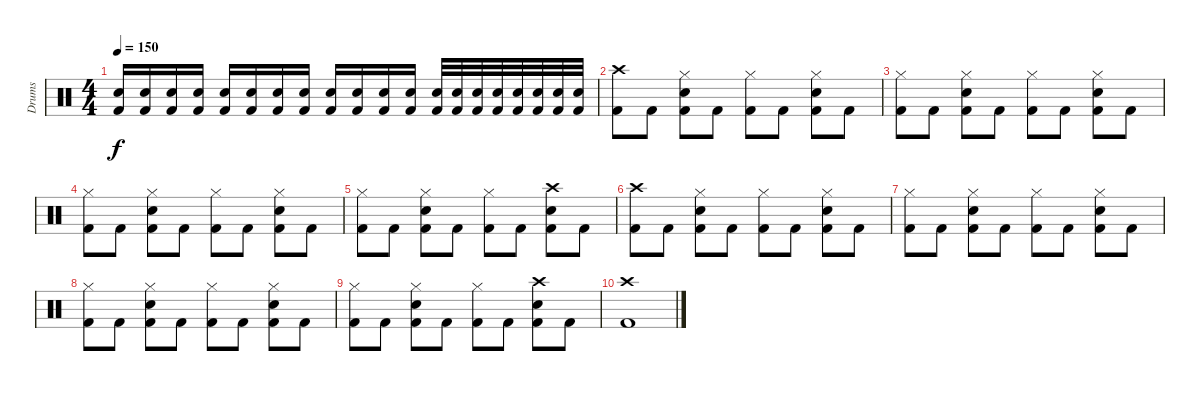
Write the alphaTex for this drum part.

\track ("Drums" "Drums") {instrument percussion}
\staff {score}
\articulation defaults
\ts (4 4)
\tempo 150
\clef neutral
\ks c
("Electric Snare (hit)" "Kick (hit) 2").16{dy f} ("Electric Snare (hit)" "Kick (hit) 2").16 ("Electric Snare (hit)" "Kick (hit) 2").16 ("Electric Snare (hit)" "Kick (hit) 2").16 ("Electric Snare (hit)" "Kick (hit) 2").16 ("Electric Snare (hit)" "Kick (hit) 2").16 ("Electric Snare (hit)" "Kick (hit) 2").16 ("Electric Snare (hit)" "Kick (hit) 2").16 ("Electric Snare (hit)" "Kick (hit) 2").16 ("Electric Snare (hit)" "Kick (hit) 2").16 ("Electric Snare (hit)" "Kick (hit) 2").16 ("Electric Snare (hit)" "Kick (hit) 2").16 ("Electric Snare (hit)" "Kick (hit) 2").32 ("Electric Snare (hit)" "Kick (hit) 2").32 ("Electric Snare (hit)" "Kick (hit) 2").32 ("Electric Snare (hit)" "Kick (hit) 2").32 ("Electric Snare (hit)" "Kick (hit) 2").32 ("Electric Snare (hit)" "Kick (hit) 2").32 ("Electric Snare (hit)" "Kick (hit) 2").32 ("Electric Snare (hit)" "Kick (hit) 2").32 |
("Crash high (hit)" "Kick (hit) 2").8 "Kick (hit) 2".8 ("Hi-Hat (closed)" "Electric Snare (hit)" "Kick (hit) 2").8 "Kick (hit) 2".8 ("Hi-Hat (closed)" "Kick (hit) 2").8 "Kick (hit) 2".8 ("Hi-Hat (closed)" "Electric Snare (hit)" "Kick (hit) 2").8 "Kick (hit) 2".8 |
("Hi-Hat (closed)" "Kick (hit) 2").8 "Kick (hit) 2".8 ("Hi-Hat (closed)" "Electric Snare (hit)" "Kick (hit) 2").8 "Kick (hit) 2".8 ("Hi-Hat (closed)" "Kick (hit) 2").8 "Kick (hit) 2".8 ("Hi-Hat (closed)" "Electric Snare (hit)" "Kick (hit) 2").8 "Kick (hit) 2".8 |
("Hi-Hat (closed)" "Kick (hit) 2").8 "Kick (hit) 2".8 ("Hi-Hat (closed)" "Electric Snare (hit)" "Kick (hit) 2").8 "Kick (hit) 2".8 ("Hi-Hat (closed)" "Kick (hit) 2").8 "Kick (hit) 2".8 ("Hi-Hat (closed)" "Electric Snare (hit)" "Kick (hit) 2").8 "Kick (hit) 2".8 |
("Hi-Hat (closed)" "Kick (hit) 2").8 "Kick (hit) 2".8 ("Hi-Hat (closed)" "Electric Snare (hit)" "Kick (hit) 2").8 "Kick (hit) 2".8 ("Hi-Hat (closed)" "Kick (hit) 2").8 "Kick (hit) 2".8 ("Crash high (hit)" "Electric Snare (hit)" "Kick (hit) 2").8 "Kick (hit) 2".8 |
("Crash high (hit)" "Kick (hit) 2").8 "Kick (hit) 2".8 ("Hi-Hat (closed)" "Electric Snare (hit)" "Kick (hit) 2").8 "Kick (hit) 2".8 ("Hi-Hat (closed)" "Kick (hit) 2").8 "Kick (hit) 2".8 ("Hi-Hat (closed)" "Electric Snare (hit)" "Kick (hit) 2").8 "Kick (hit) 2".8 |
("Hi-Hat (closed)" "Kick (hit) 2").8 "Kick (hit) 2".8 ("Hi-Hat (closed)" "Electric Snare (hit)" "Kick (hit) 2").8 "Kick (hit) 2".8 ("Hi-Hat (closed)" "Kick (hit) 2").8 "Kick (hit) 2".8 ("Hi-Hat (closed)" "Electric Snare (hit)" "Kick (hit) 2").8 "Kick (hit) 2".8 |
("Hi-Hat (closed)" "Kick (hit) 2").8 "Kick (hit) 2".8 ("Hi-Hat (closed)" "Electric Snare (hit)" "Kick (hit) 2").8 "Kick (hit) 2".8 ("Hi-Hat (closed)" "Kick (hit) 2").8 "Kick (hit) 2".8 ("Hi-Hat (closed)" "Electric Snare (hit)" "Kick (hit) 2").8 "Kick (hit) 2".8 |
("Hi-Hat (closed)" "Kick (hit) 2").8 "Kick (hit) 2".8 ("Hi-Hat (closed)" "Electric Snare (hit)" "Kick (hit) 2").8 "Kick (hit) 2".8 ("Hi-Hat (closed)" "Kick (hit) 2").8 "Kick (hit) 2".8 ("Crash high (hit)" "Electric Snare (hit)" "Kick (hit) 2").8 "Kick (hit) 2".8 |
("Crash high (hit)" "Kick (hit) 2").1
